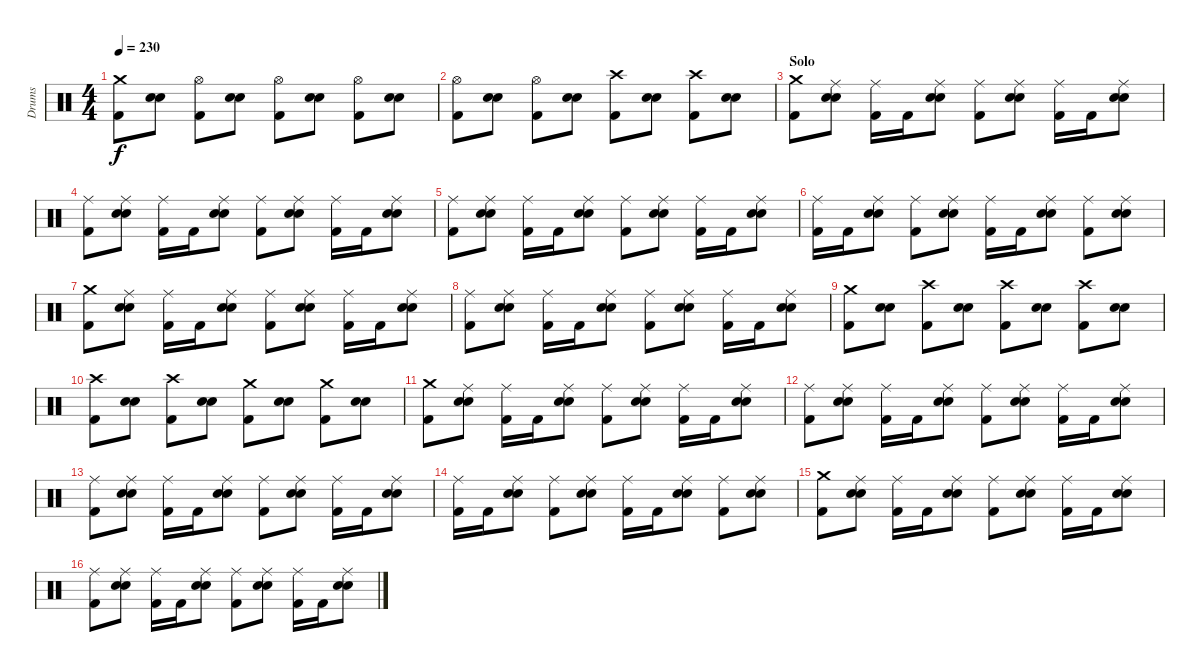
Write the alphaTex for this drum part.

\track ("Drums" "Drums") {instrument percussion}
\staff {score}
\articulation defaults
\ts (4 4)
\tempo 230
\clef neutral
\ks c
("Crash medium (hit)" "Kick (hit) 2").8{dy f} ("Electric Snare (hit)" "Electric Snare (hit)").8 ("Hi-Hat (open)" "Kick (hit) 2").8 ("Electric Snare (hit)" "Electric Snare (hit)").8 ("Hi-Hat (open)" "Kick (hit) 2").8 ("Electric Snare (hit)" "Electric Snare (hit)").8 ("Hi-Hat (open)" "Kick (hit) 2").8 ("Electric Snare (hit)" "Electric Snare (hit)").8 |
("Hi-Hat (open)" "Kick (hit) 2").8 ("Electric Snare (hit)" "Electric Snare (hit)").8 ("Hi-Hat (open)" "Kick (hit) 2").8 ("Electric Snare (hit)" "Electric Snare (hit)").8 ("Crash high (hit)" "Kick (hit) 2").8 ("Electric Snare (hit)" "Electric Snare (hit)").8 ("Crash high (hit)" "Kick (hit) 2").8 ("Electric Snare (hit)" "Electric Snare (hit)").8 |
\section ("" "Solo")
("Crash medium (hit)" "Kick (hit) 2").8 ("Ride (middle)" "Electric Snare (hit)" "Electric Snare (hit)").8 ("Ride (middle)" "Kick (hit) 2").16 "Kick (hit) 2".16 ("Ride (middle)" "Electric Snare (hit)" "Electric Snare (hit)").8 ("Ride (middle)" "Kick (hit) 2").8 ("Ride (middle)" "Electric Snare (hit)" "Electric Snare (hit)").8 ("Ride (middle)" "Kick (hit) 2").16 "Kick (hit) 2".16 ("Ride (middle)" "Electric Snare (hit)" "Electric Snare (hit)").8 |
("Ride (middle)" "Kick (hit) 2").8 ("Ride (middle)" "Electric Snare (hit)" "Electric Snare (hit)").8 ("Ride (middle)" "Kick (hit) 2").16 "Kick (hit) 2".16 ("Ride (middle)" "Electric Snare (hit)" "Electric Snare (hit)").8 ("Ride (middle)" "Kick (hit) 2").8 ("Ride (middle)" "Electric Snare (hit)" "Electric Snare (hit)").8 ("Ride (middle)" "Kick (hit) 2").16 "Kick (hit) 2".16 ("Ride (middle)" "Electric Snare (hit)" "Electric Snare (hit)").8 |
("Ride (middle)" "Kick (hit) 2").8 ("Ride (middle)" "Electric Snare (hit)" "Electric Snare (hit)").8 ("Ride (middle)" "Kick (hit) 2").16 "Kick (hit) 2".16 ("Ride (middle)" "Electric Snare (hit)" "Electric Snare (hit)").8 ("Ride (middle)" "Kick (hit) 2").8 ("Ride (middle)" "Electric Snare (hit)" "Electric Snare (hit)").8 ("Ride (middle)" "Kick (hit) 2").16 "Kick (hit) 2".16 ("Ride (middle)" "Electric Snare (hit)" "Electric Snare (hit)").8 |
("Ride (middle)" "Kick (hit) 2").16 "Kick (hit) 2".16 ("Ride (middle)" "Electric Snare (hit)" "Electric Snare (hit)").8 ("Ride (middle)" "Kick (hit) 2").8 ("Ride (middle)" "Electric Snare (hit)" "Electric Snare (hit)").8 ("Ride (middle)" "Kick (hit) 2").16 "Kick (hit) 2".16 ("Ride (middle)" "Electric Snare (hit)" "Electric Snare (hit)").8 ("Ride (middle)" "Kick (hit) 2").8 ("Ride (middle)" "Electric Snare (hit)" "Electric Snare (hit)").8 |
("Crash medium (hit)" "Kick (hit) 2").8 ("Ride (middle)" "Electric Snare (hit)" "Electric Snare (hit)").8 ("Ride (middle)" "Kick (hit) 2").16 "Kick (hit) 2".16 ("Ride (middle)" "Electric Snare (hit)" "Electric Snare (hit)").8 ("Ride (middle)" "Kick (hit) 2").8 ("Ride (middle)" "Electric Snare (hit)" "Electric Snare (hit)").8 ("Ride (middle)" "Kick (hit) 2").16 "Kick (hit) 2".16 ("Ride (middle)" "Electric Snare (hit)" "Electric Snare (hit)").8 |
("Ride (middle)" "Kick (hit) 2").8 ("Ride (middle)" "Electric Snare (hit)" "Electric Snare (hit)").8 ("Ride (middle)" "Kick (hit) 2").16 "Kick (hit) 2".16 ("Ride (middle)" "Electric Snare (hit)" "Electric Snare (hit)").8 ("Ride (middle)" "Kick (hit) 2").8 ("Ride (middle)" "Electric Snare (hit)" "Electric Snare (hit)").8 ("Ride (middle)" "Kick (hit) 2").16 "Kick (hit) 2".16 ("Ride (middle)" "Electric Snare (hit)" "Electric Snare (hit)").8 |
("Crash medium (hit)" "Kick (hit) 2").8 ("Electric Snare (hit)" "Electric Snare (hit)").8 ("Crash high (hit)" "Kick (hit) 2").8 ("Electric Snare (hit)" "Electric Snare (hit)").8 ("Crash high (hit)" "Kick (hit) 2").8 ("Electric Snare (hit)" "Electric Snare (hit)").8 ("Crash high (hit)" "Kick (hit) 2").8 ("Electric Snare (hit)" "Electric Snare (hit)").8 |
("Crash high (hit)" "Kick (hit) 2").8 ("Electric Snare (hit)" "Electric Snare (hit)").8 ("Crash high (hit)" "Kick (hit) 2").8 ("Electric Snare (hit)" "Electric Snare (hit)").8 ("Crash medium (hit)" "Kick (hit) 2").8 ("Electric Snare (hit)" "Electric Snare (hit)").8 ("Crash medium (hit)" "Kick (hit) 2").8 ("Electric Snare (hit)" "Electric Snare (hit)").8 |
("Crash medium (hit)" "Kick (hit) 2").8 ("Ride (middle)" "Electric Snare (hit)" "Electric Snare (hit)").8 ("Ride (middle)" "Kick (hit) 2").16 "Kick (hit) 2".16 ("Ride (middle)" "Electric Snare (hit)" "Electric Snare (hit)").8 ("Ride (middle)" "Kick (hit) 2").8 ("Ride (middle)" "Electric Snare (hit)" "Electric Snare (hit)").8 ("Ride (middle)" "Kick (hit) 2").16 "Kick (hit) 2".16 ("Ride (middle)" "Electric Snare (hit)" "Electric Snare (hit)").8 |
("Ride (middle)" "Kick (hit) 2").8 ("Ride (middle)" "Electric Snare (hit)" "Electric Snare (hit)").8 ("Ride (middle)" "Kick (hit) 2").16 "Kick (hit) 2".16 ("Ride (middle)" "Electric Snare (hit)" "Electric Snare (hit)").8 ("Ride (middle)" "Kick (hit) 2").8 ("Ride (middle)" "Electric Snare (hit)" "Electric Snare (hit)").8 ("Ride (middle)" "Kick (hit) 2").16 "Kick (hit) 2".16 ("Ride (middle)" "Electric Snare (hit)" "Electric Snare (hit)").8 |
("Ride (middle)" "Kick (hit) 2").8 ("Ride (middle)" "Electric Snare (hit)" "Electric Snare (hit)").8 ("Ride (middle)" "Kick (hit) 2").16 "Kick (hit) 2".16 ("Ride (middle)" "Electric Snare (hit)" "Electric Snare (hit)").8 ("Ride (middle)" "Kick (hit) 2").8 ("Ride (middle)" "Electric Snare (hit)" "Electric Snare (hit)").8 ("Ride (middle)" "Kick (hit) 2").16 "Kick (hit) 2".16 ("Ride (middle)" "Electric Snare (hit)" "Electric Snare (hit)").8 |
("Ride (middle)" "Kick (hit) 2").16 "Kick (hit) 2".16 ("Ride (middle)" "Electric Snare (hit)" "Electric Snare (hit)").8 ("Ride (middle)" "Kick (hit) 2").8 ("Ride (middle)" "Electric Snare (hit)" "Electric Snare (hit)").8 ("Ride (middle)" "Kick (hit) 2").16 "Kick (hit) 2".16 ("Ride (middle)" "Electric Snare (hit)" "Electric Snare (hit)").8 ("Ride (middle)" "Kick (hit) 2").8 ("Ride (middle)" "Electric Snare (hit)" "Electric Snare (hit)").8 |
("Crash medium (hit)" "Kick (hit) 2").8 ("Ride (middle)" "Electric Snare (hit)" "Electric Snare (hit)").8 ("Ride (middle)" "Kick (hit) 2").16 "Kick (hit) 2".16 ("Ride (middle)" "Electric Snare (hit)" "Electric Snare (hit)").8 ("Ride (middle)" "Kick (hit) 2").8 ("Ride (middle)" "Electric Snare (hit)" "Electric Snare (hit)").8 ("Ride (middle)" "Kick (hit) 2").16 "Kick (hit) 2".16 ("Ride (middle)" "Electric Snare (hit)" "Electric Snare (hit)").8 |
("Ride (middle)" "Kick (hit) 2").8 ("Ride (middle)" "Electric Snare (hit)" "Electric Snare (hit)").8 ("Ride (middle)" "Kick (hit) 2").16 "Kick (hit) 2".16 ("Ride (middle)" "Electric Snare (hit)" "Electric Snare (hit)").8 ("Ride (middle)" "Kick (hit) 2").8 ("Ride (middle)" "Electric Snare (hit)" "Electric Snare (hit)").8 ("Ride (middle)" "Kick (hit) 2").16 "Kick (hit) 2".16 ("Ride (middle)" "Electric Snare (hit)" "Electric Snare (hit)").8
